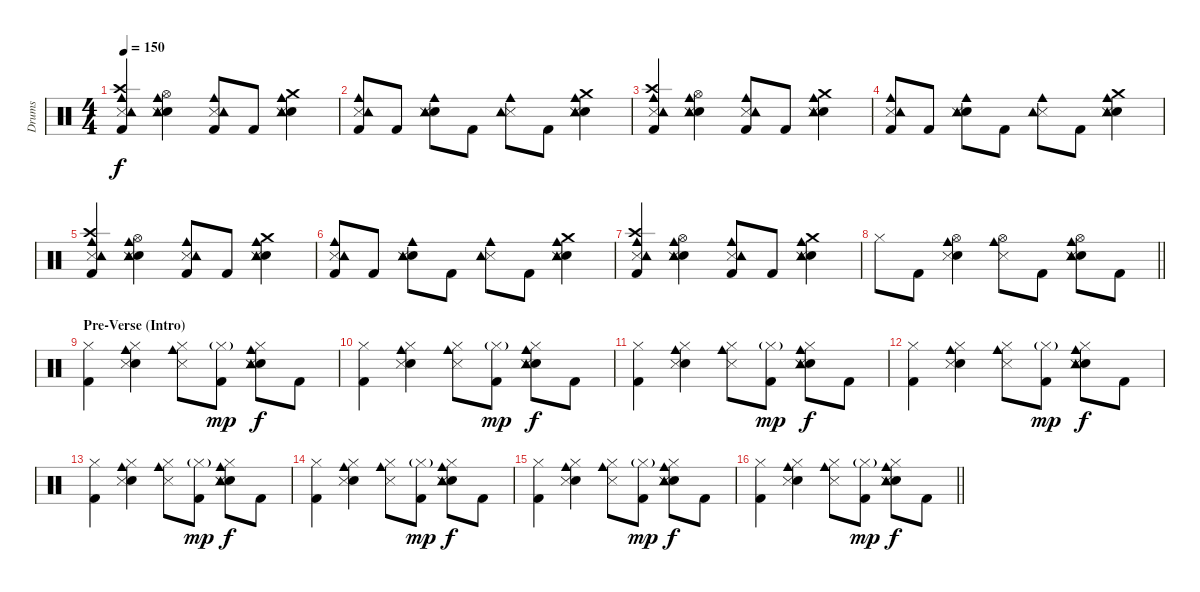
\track ("Drums" "Drums") {instrument percussion}
\staff {score}
\articulation defaults
\ts (4 4)
\tempo 150
\clef neutral
\ks c
("Kick (hit) 2" "Crash high (hit)" "Cowbell medium (hit)" "Snare (side stick) 3" "Tambourine (hit)").4{dy f} ("Electric Snare (hit)" "Hi-Hat (open)" "Cowbell medium (hit)" "Snare (side stick) 3" "Tambourine (hit)").4 ("Kick (hit) 2" "Cowbell medium (hit)" "Snare (side stick) 3" "Tambourine (hit)").8 "Kick (hit) 2".8 ("Electric Snare (hit)" "Crash medium (hit)" "Cowbell medium (hit)" "Snare (side stick) 3" "Tambourine (hit)").4 |
("Kick (hit) 2" "Cowbell medium (hit)" "Snare (side stick) 3" "Tambourine (hit)").8 "Kick (hit) 2".8 ("Electric Snare (hit)" "Cowbell medium (hit)" "Snare (side stick) 3" "Tambourine (hit)").8 "Kick (hit) 2".8 ("Cowbell medium (hit)" "Snare (side stick) 3" "Tambourine (hit)").8 "Kick (hit) 2".8 ("Electric Snare (hit)" "Crash medium (hit)" "Cowbell medium (hit)" "Snare (side stick) 3" "Tambourine (hit)").4 |
("Kick (hit) 2" "Crash high (hit)" "Cowbell medium (hit)" "Snare (side stick) 3" "Tambourine (hit)").4 ("Electric Snare (hit)" "Hi-Hat (open)" "Cowbell medium (hit)" "Snare (side stick) 3" "Tambourine (hit)").4 ("Kick (hit) 2" "Cowbell medium (hit)" "Snare (side stick) 3" "Tambourine (hit)").8 "Kick (hit) 2".8 ("Electric Snare (hit)" "Crash medium (hit)" "Cowbell medium (hit)" "Snare (side stick) 3" "Tambourine (hit)").4 |
("Kick (hit) 2" "Cowbell medium (hit)" "Snare (side stick) 3" "Tambourine (hit)").8 "Kick (hit) 2".8 ("Electric Snare (hit)" "Cowbell medium (hit)" "Snare (side stick) 3" "Tambourine (hit)").8 "Kick (hit) 2".8 ("Cowbell medium (hit)" "Snare (side stick) 3" "Tambourine (hit)").8 "Kick (hit) 2".8 ("Electric Snare (hit)" "Crash medium (hit)" "Cowbell medium (hit)" "Snare (side stick) 3" "Tambourine (hit)").4 |
("Kick (hit) 2" "Crash high (hit)" "Cowbell medium (hit)" "Snare (side stick) 3" "Tambourine (hit)").4 ("Electric Snare (hit)" "Hi-Hat (open)" "Cowbell medium (hit)" "Snare (side stick) 3" "Tambourine (hit)").4 ("Kick (hit) 2" "Cowbell medium (hit)" "Snare (side stick) 3" "Tambourine (hit)").8 "Kick (hit) 2".8 ("Electric Snare (hit)" "Crash medium (hit)" "Cowbell medium (hit)" "Snare (side stick) 3" "Tambourine (hit)").4 |
("Kick (hit) 2" "Cowbell medium (hit)" "Snare (side stick) 3" "Tambourine (hit)").8 "Kick (hit) 2".8 ("Electric Snare (hit)" "Cowbell medium (hit)" "Snare (side stick) 3" "Tambourine (hit)").8 "Kick (hit) 2".8 ("Cowbell medium (hit)" "Snare (side stick) 3" "Tambourine (hit)").8 "Kick (hit) 2".8 ("Electric Snare (hit)" "Crash medium (hit)" "Cowbell medium (hit)" "Snare (side stick) 3" "Tambourine (hit)").4 |
("Kick (hit) 2" "Crash high (hit)" "Cowbell medium (hit)" "Snare (side stick) 3" "Tambourine (hit)").4 ("Electric Snare (hit)" "Hi-Hat (open)" "Cowbell medium (hit)" "Snare (side stick) 3" "Tambourine (hit)").4 ("Kick (hit) 2" "Cowbell medium (hit)" "Snare (side stick) 3" "Tambourine (hit)").8 "Kick (hit) 2".8 ("Electric Snare (hit)" "Crash medium (hit)" "Cowbell medium (hit)" "Snare (side stick) 3" "Tambourine (hit)").4 |
\barLineRight lightlight "Hi-Hat (closed)".8 "Kick (hit) 2".8
("Electric Snare (hit)" "Hi-Hat (open)" "Cowbell medium (hit)" "Snare (side stick) 3").4 ("Hi-Hat (open)" "Cowbell medium (hit)" "Snare (side stick) 3").8 "Kick (hit) 2".8 ("Electric Snare (hit)" "Hi-Hat (open)" "Cowbell medium (hit)" "Snare (side stick) 3" "Tambourine (hit)").8 "Kick (hit) 2".8 |
\section ("" "Pre-Verse (Intro)")
("Kick (hit) 2" "Hi-Hat (closed)").4 ("Electric Snare (hit)" "Hi-Hat (closed)" "Cowbell medium (hit)" "Snare (side stick) 3").4 ("Hi-Hat (closed)" "Cowbell medium (hit)" "Snare (side stick) 3").8 ("Kick (hit) 2" "Hi-Hat (closed)"{g}).8{dy mp} ("Electric Snare (hit)" "Hi-Hat (closed)" "Cowbell medium (hit)" "Snare (side stick) 3" "Tambourine (hit)").8{dy f} "Kick (hit) 2".8 |
("Kick (hit) 2" "Hi-Hat (closed)").4 ("Electric Snare (hit)" "Hi-Hat (closed)" "Cowbell medium (hit)" "Snare (side stick) 3").4 ("Hi-Hat (closed)" "Cowbell medium (hit)" "Snare (side stick) 3").8 ("Kick (hit) 2" "Hi-Hat (closed)"{g}).8{dy mp} ("Electric Snare (hit)" "Hi-Hat (closed)" "Cowbell medium (hit)" "Snare (side stick) 3" "Tambourine (hit)").8{dy f} "Kick (hit) 2".8 |
("Kick (hit) 2" "Hi-Hat (closed)").4 ("Electric Snare (hit)" "Hi-Hat (closed)" "Cowbell medium (hit)" "Snare (side stick) 3").4 ("Hi-Hat (closed)" "Cowbell medium (hit)" "Snare (side stick) 3").8 ("Kick (hit) 2" "Hi-Hat (closed)"{g}).8{dy mp} ("Electric Snare (hit)" "Hi-Hat (closed)" "Cowbell medium (hit)" "Snare (side stick) 3" "Tambourine (hit)").8{dy f} "Kick (hit) 2".8 |
("Kick (hit) 2" "Hi-Hat (closed)").4 ("Electric Snare (hit)" "Hi-Hat (closed)" "Cowbell medium (hit)" "Snare (side stick) 3").4 ("Hi-Hat (closed)" "Cowbell medium (hit)" "Snare (side stick) 3").8 ("Kick (hit) 2" "Hi-Hat (closed)"{g}).8{dy mp} ("Electric Snare (hit)" "Hi-Hat (closed)" "Cowbell medium (hit)" "Snare (side stick) 3" "Tambourine (hit)").8{dy f} "Kick (hit) 2".8 |
("Kick (hit) 2" "Hi-Hat (closed)").4 ("Electric Snare (hit)" "Hi-Hat (closed)" "Cowbell medium (hit)" "Snare (side stick) 3").4 ("Hi-Hat (closed)" "Cowbell medium (hit)" "Snare (side stick) 3").8 ("Kick (hit) 2" "Hi-Hat (closed)"{g}).8{dy mp} ("Electric Snare (hit)" "Hi-Hat (closed)" "Cowbell medium (hit)" "Snare (side stick) 3" "Tambourine (hit)").8{dy f} "Kick (hit) 2".8 |
("Kick (hit) 2" "Hi-Hat (closed)").4 ("Electric Snare (hit)" "Hi-Hat (closed)" "Cowbell medium (hit)" "Snare (side stick) 3").4 ("Hi-Hat (closed)" "Cowbell medium (hit)" "Snare (side stick) 3").8 ("Kick (hit) 2" "Hi-Hat (closed)"{g}).8{dy mp} ("Electric Snare (hit)" "Hi-Hat (closed)" "Cowbell medium (hit)" "Snare (side stick) 3" "Tambourine (hit)").8{dy f} "Kick (hit) 2".8 |
("Kick (hit) 2" "Hi-Hat (closed)").4 ("Electric Snare (hit)" "Hi-Hat (closed)" "Cowbell medium (hit)" "Snare (side stick) 3").4 ("Hi-Hat (closed)" "Cowbell medium (hit)" "Snare (side stick) 3").8 ("Kick (hit) 2" "Hi-Hat (closed)"{g}).8{dy mp} ("Electric Snare (hit)" "Hi-Hat (closed)" "Cowbell medium (hit)" "Snare (side stick) 3" "Tambourine (hit)").8{dy f} "Kick (hit) 2".8 |
\barLineRight lightlight
("Kick (hit) 2" "Hi-Hat (closed)").4 ("Electric Snare (hit)" "Hi-Hat (closed)" "Cowbell medium (hit)" "Snare (side stick) 3").4 ("Hi-Hat (closed)" "Cowbell medium (hit)" "Snare (side stick) 3").8 ("Kick (hit) 2" "Hi-Hat (closed)"{g}).8{dy mp} ("Electric Snare (hit)" "Hi-Hat (closed)" "Cowbell medium (hit)" "Snare (side stick) 3" "Tambourine (hit)").8{dy f} "Kick (hit) 2".8
